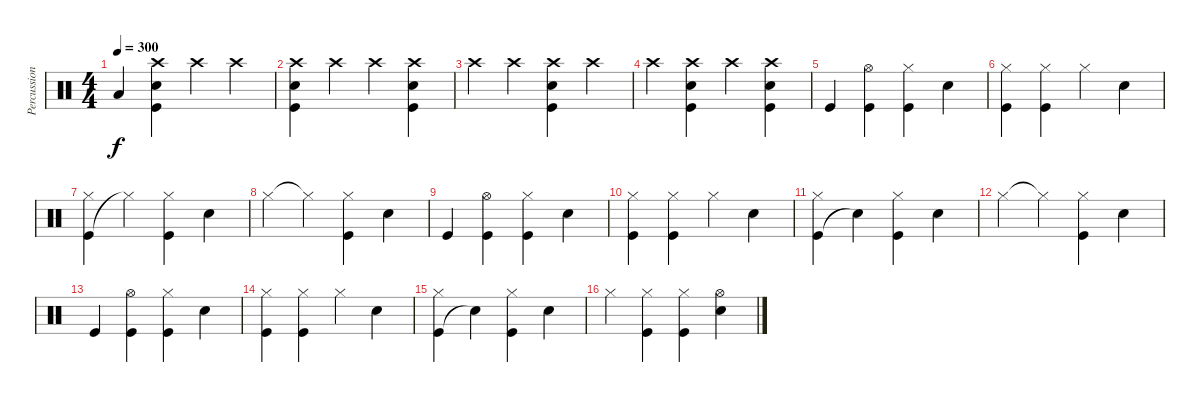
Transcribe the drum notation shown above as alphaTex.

\track ("Percussion" "Percussion") {instrument percussion}
\staff {score}
\articulation defaults
\ts (4 4)
\tempo 300
\clef neutral
\ks c "Low Floor Tom (hit)".4{dy f}
("Kick (hit)" "Electric Snare (hit)" "Crash high (hit)").4 "Crash high (hit)".4 "Crash high (hit)".4 |
("Kick (hit)" "Electric Snare (hit)" "Crash high (hit)").4 "Crash high (hit)".4 "Crash high (hit)".4 ("Kick (hit)" "Electric Snare (hit)" "Crash high (hit)").4 |
"Crash high (hit)".4 "Crash high (hit)".4 ("Kick (hit)" "Electric Snare (hit)" "Crash high (hit)").4 "Crash high (hit)".4 |
"Crash high (hit)".4 ("Kick (hit)" "Electric Snare (hit)" "Crash high (hit)").4 "Crash high (hit)".4 ("Kick (hit)" "Electric Snare (hit)" "Crash high (hit)").4 |
"Kick (hit)".4 ("Kick (hit)" "Hi-Hat (open)").4 ("Kick (hit)" "Hi-Hat (closed)").4 "Electric Snare (hit)".4 |
("Kick (hit)" "Hi-Hat (closed)").4 ("Kick (hit)" "Hi-Hat (closed)").4 "Hi-Hat (closed)".4 "Electric Snare (hit)".4 |
("Kick (hit)" "Hi-Hat (closed)").4 "Hi-Hat (closed)"{t}.4 ("Kick (hit)" "Hi-Hat (closed)").4 "Electric Snare (hit)".4 |
"Hi-Hat (closed)".4 "Hi-Hat (closed)"{t}.4 ("Kick (hit)" "Hi-Hat (closed)").4 "Electric Snare (hit)".4 |
"Kick (hit)".4 ("Kick (hit)" "Hi-Hat (open)").4 ("Kick (hit)" "Hi-Hat (closed)").4 "Electric Snare (hit)".4 |
("Kick (hit)" "Hi-Hat (closed)").4 ("Kick (hit)" "Hi-Hat (closed)").4 "Hi-Hat (closed)".4 "Electric Snare (hit)".4 |
("Kick (hit)" "Hi-Hat (closed)").4 "Snare (hit)"{t}.4 ("Kick (hit)" "Hi-Hat (closed)").4 "Electric Snare (hit)".4 |
"Hi-Hat (closed)".4 "Hi-Hat (closed)"{t}.4 ("Kick (hit)" "Hi-Hat (closed)").4 "Electric Snare (hit)".4 |
"Kick (hit)".4 ("Kick (hit)" "Hi-Hat (open)").4 ("Kick (hit)" "Hi-Hat (closed)").4 "Electric Snare (hit)".4 |
("Kick (hit)" "Hi-Hat (closed)").4 ("Kick (hit)" "Hi-Hat (closed)").4 "Hi-Hat (closed)".4 "Electric Snare (hit)".4 |
("Kick (hit)" "Hi-Hat (closed)").4 "Snare (hit)"{t}.4 ("Kick (hit)" "Hi-Hat (closed)").4 "Electric Snare (hit)".4 |
"Hi-Hat (closed)".4 ("Kick (hit)" "Hi-Hat (closed)").4 ("Kick (hit)" "Hi-Hat (closed)").4 ("Electric Snare (hit)" "Hi-Hat (open)").4
